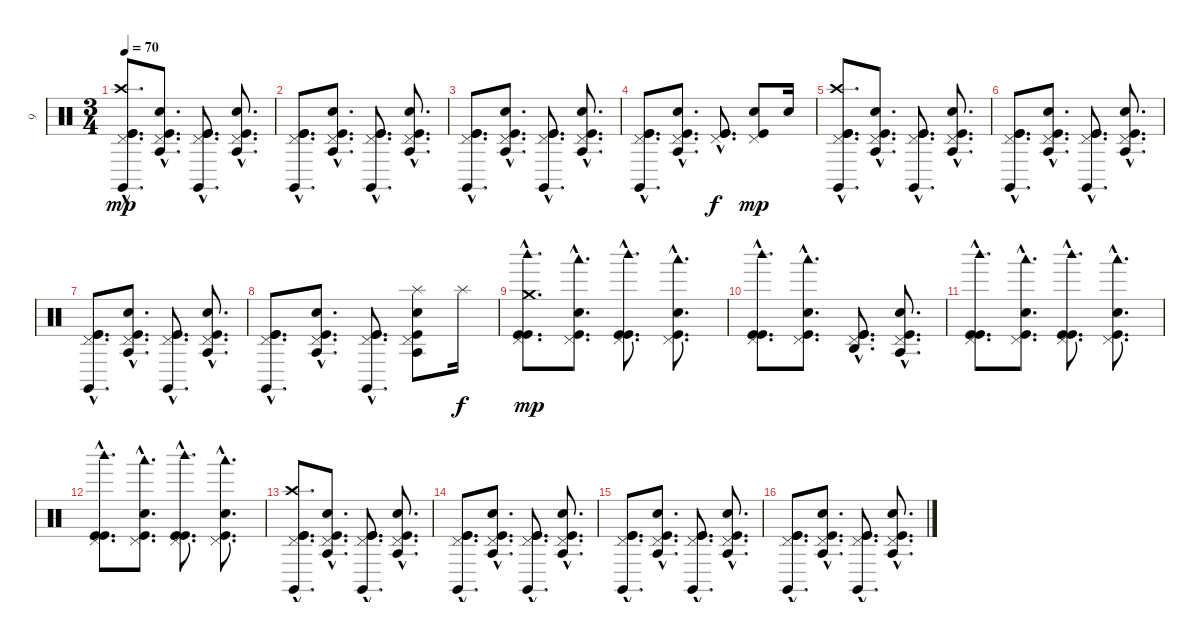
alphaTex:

\track ("9" "9") {instrument percussion}
\staff {score}
\articulation defaults
\ts (3 4)
\tempo 70
\clef neutral
\ks c
("Kick (hit)"{hac} "Kick (hit)"{hac} "Claves (hit)"{hac} "Pedal Hi-Hat (hit)"{hac} "Crash high (hit)"{hac}).8{d dy mp} ("Kick (hit)"{hac} "Snare (hit) 2"{hac} "Agogo tow (hit)"{hac} "Pedal Hi-Hat (hit)"{hac}).8{d} ("Kick (hit)"{hac} "Kick (hit)"{hac} "Claves (hit)"{hac} "Pedal Hi-Hat (hit)"{hac}).8{d} ("Kick (hit)"{hac} "Snare (hit) 2"{hac} "Agogo tow (hit)"{hac} "Pedal Hi-Hat (hit)"{hac}).8{d} |
("Kick (hit)"{hac} "Kick (hit)"{hac} "Claves (hit)"{hac} "Pedal Hi-Hat (hit)"{hac}).8{d} ("Kick (hit)"{hac} "Snare (hit) 2"{hac} "Agogo tow (hit)"{hac} "Pedal Hi-Hat (hit)"{hac}).8{d} ("Kick (hit)"{hac} "Kick (hit)"{hac} "Claves (hit)"{hac} "Pedal Hi-Hat (hit)"{hac}).8{d} ("Kick (hit)"{hac} "Snare (hit) 2"{hac} "Agogo tow (hit)"{hac} "Pedal Hi-Hat (hit)"{hac}).8{d} |
("Kick (hit)"{hac} "Kick (hit)"{hac} "Claves (hit)"{hac} "Pedal Hi-Hat (hit)"{hac}).8{d} ("Kick (hit)"{hac} "Snare (hit) 2"{hac} "Agogo tow (hit)"{hac} "Pedal Hi-Hat (hit)"{hac}).8{d} ("Kick (hit)"{hac} "Kick (hit)"{hac} "Claves (hit)"{hac} "Pedal Hi-Hat (hit)"{hac}).8{d} ("Kick (hit)"{hac} "Snare (hit) 2"{hac} "Agogo tow (hit)"{hac} "Pedal Hi-Hat (hit)"{hac}).8{d} |
("Kick (hit)"{hac} "Kick (hit)"{hac} "Claves (hit)"{hac} "Pedal Hi-Hat (hit)"{hac}).8{d} ("Kick (hit)"{hac} "Snare (hit) 2"{hac} "Agogo tow (hit)"{hac} "Pedal Hi-Hat (hit)"{hac}).8{d} ("Kick (hit)"{hac} "Kick (hit)"{hac} "Pedal Hi-Hat (hit)"{hac}).8{d dy f} ("Kick (hit)" "Snare (hit) 2" "Pedal Hi-Hat (hit)").8{dy mp} "Snare (hit) 2".16 |
("Kick (hit)"{hac} "Kick (hit)"{hac} "Claves (hit)"{hac} "Pedal Hi-Hat (hit)"{hac} "Crash high (hit)"{hac}).8{d} ("Kick (hit)"{hac} "Snare (hit) 2"{hac} "Agogo tow (hit)"{hac} "Pedal Hi-Hat (hit)"{hac}).8{d} ("Kick (hit)"{hac} "Kick (hit)"{hac} "Claves (hit)"{hac} "Pedal Hi-Hat (hit)"{hac}).8{d} ("Kick (hit)"{hac} "Snare (hit) 2"{hac} "Agogo tow (hit)"{hac} "Pedal Hi-Hat (hit)"{hac}).8{d} |
("Kick (hit)"{hac} "Kick (hit)"{hac} "Claves (hit)"{hac} "Pedal Hi-Hat (hit)"{hac}).8{d} ("Kick (hit)"{hac} "Snare (hit) 2"{hac} "Agogo tow (hit)"{hac} "Pedal Hi-Hat (hit)"{hac}).8{d} ("Kick (hit)"{hac} "Kick (hit)"{hac} "Claves (hit)"{hac} "Pedal Hi-Hat (hit)"{hac}).8{d} ("Kick (hit)"{hac} "Snare (hit) 2"{hac} "Agogo tow (hit)"{hac} "Pedal Hi-Hat (hit)"{hac}).8{d} |
("Kick (hit)"{hac} "Kick (hit)"{hac} "Claves (hit)"{hac} "Pedal Hi-Hat (hit)"{hac}).8{d} ("Kick (hit)"{hac} "Snare (hit) 2"{hac} "Agogo tow (hit)"{hac} "Pedal Hi-Hat (hit)"{hac}).8{d} ("Kick (hit)"{hac} "Kick (hit)"{hac} "Claves (hit)"{hac} "Pedal Hi-Hat (hit)"{hac}).8{d} ("Kick (hit)"{hac} "Snare (hit) 2"{hac} "Agogo tow (hit)"{hac} "Pedal Hi-Hat (hit)"{hac}).8{d} |
("Kick (hit)"{hac} "Kick (hit)"{hac} "Claves (hit)"{hac} "Pedal Hi-Hat (hit)"{hac}).8{d} ("Kick (hit)"{hac} "Snare (hit) 2"{hac} "Agogo tow (hit)"{hac} "Pedal Hi-Hat (hit)"{hac}).8{d} ("Kick (hit)"{hac} "Kick (hit)"{hac} "Claves (hit)"{hac} "Pedal Hi-Hat (hit)"{hac}).8{d} ("Kick (hit)" "Snare (hit) 2" "Agogo tow (hit)" "Pedal Hi-Hat (hit)" "Splash (hit)").8 "Splash (hit)".16{dy f} |
("Kick (hit)"{hac} "Kick (hit)"{hac} "Woodblock high (hit)"{hac} "Pedal Hi-Hat (hit)"{hac} "Crash medium (hit)"{hac}).8{d dy mp} ("Kick (hit)"{hac} "Snare (hit) 2"{hac} "Woodblock low (hit)"{hac} "Pedal Hi-Hat (hit)"{hac}).8{d} ("Kick (hit)"{hac} "Kick (hit)"{hac} "Woodblock high (hit)"{hac} "Pedal Hi-Hat (hit)"{hac}).8{d} ("Kick (hit)"{hac} "Snare (hit) 2"{hac} "Woodblock low (hit)"{hac} "Pedal Hi-Hat (hit)"{hac}).8{d} |
("Kick (hit)"{hac} "Kick (hit)"{hac} "Woodblock high (hit)"{hac} "Pedal Hi-Hat (hit)"{hac}).8{d} ("Kick (hit)"{hac} "Snare (hit) 2"{hac} "Woodblock low (hit)"{hac} "Pedal Hi-Hat (hit)"{hac}).8{d} ("Kick (hit)"{hac} "Kick (hit)"{hac} "Agogo high (hit)"{hac} "Pedal Hi-Hat (hit)"{hac}).8{d} ("Kick (hit)"{hac} "Snare (hit) 2"{hac} "Agogo tow (hit)"{hac} "Pedal Hi-Hat (hit)"{hac}).8{d} |
("Kick (hit)"{hac} "Kick (hit)"{hac} "Woodblock high (hit)"{hac} "Pedal Hi-Hat (hit)"{hac}).8{d} ("Kick (hit)"{hac} "Snare (hit) 2"{hac} "Woodblock low (hit)"{hac} "Pedal Hi-Hat (hit)"{hac}).8{d} ("Kick (hit)"{hac} "Kick (hit)"{hac} "Woodblock high (hit)"{hac} "Pedal Hi-Hat (hit)"{hac}).8{d} ("Kick (hit)"{hac} "Snare (hit) 2"{hac} "Woodblock low (hit)"{hac} "Pedal Hi-Hat (hit)"{hac}).8{d} |
("Kick (hit)"{hac} "Kick (hit)"{hac} "Woodblock high (hit)"{hac} "Pedal Hi-Hat (hit)"{hac}).8{d} ("Kick (hit)"{hac} "Snare (hit) 2"{hac} "Woodblock low (hit)"{hac} "Pedal Hi-Hat (hit)"{hac}).8{d} ("Kick (hit)"{hac} "Kick (hit)"{hac} "Woodblock high (hit)"{hac} "Pedal Hi-Hat (hit)"{hac}).8{d} ("Kick (hit)"{hac} "Snare (hit) 2"{hac} "Woodblock low (hit)"{hac} "Pedal Hi-Hat (hit)"{hac}).8{d} |
("Kick (hit)"{hac} "Kick (hit)"{hac} "Claves (hit)"{hac} "Pedal Hi-Hat (hit)"{hac} "Crash high (hit)"{hac}).8{d} ("Kick (hit)"{hac} "Snare (hit) 2"{hac} "Agogo tow (hit)"{hac} "Pedal Hi-Hat (hit)"{hac}).8{d} ("Kick (hit)"{hac} "Kick (hit)"{hac} "Claves (hit)"{hac} "Pedal Hi-Hat (hit)"{hac}).8{d} ("Kick (hit)"{hac} "Snare (hit) 2"{hac} "Agogo tow (hit)"{hac} "Pedal Hi-Hat (hit)"{hac}).8{d} |
("Kick (hit)"{hac} "Kick (hit)"{hac} "Claves (hit)"{hac} "Pedal Hi-Hat (hit)"{hac}).8{d} ("Kick (hit)"{hac} "Snare (hit) 2"{hac} "Agogo tow (hit)"{hac} "Pedal Hi-Hat (hit)"{hac}).8{d} ("Kick (hit)"{hac} "Kick (hit)"{hac} "Claves (hit)"{hac} "Pedal Hi-Hat (hit)"{hac}).8{d} ("Kick (hit)"{hac} "Snare (hit) 2"{hac} "Agogo tow (hit)"{hac} "Pedal Hi-Hat (hit)"{hac}).8{d} |
("Kick (hit)"{hac} "Kick (hit)"{hac} "Claves (hit)"{hac} "Pedal Hi-Hat (hit)"{hac}).8{d} ("Kick (hit)"{hac} "Snare (hit) 2"{hac} "Agogo tow (hit)"{hac} "Pedal Hi-Hat (hit)"{hac}).8{d} ("Kick (hit)"{hac} "Kick (hit)"{hac} "Claves (hit)"{hac} "Pedal Hi-Hat (hit)"{hac}).8{d} ("Kick (hit)"{hac} "Snare (hit) 2"{hac} "Agogo tow (hit)"{hac} "Pedal Hi-Hat (hit)"{hac}).8{d} |
("Kick (hit)"{hac} "Kick (hit)"{hac} "Claves (hit)"{hac} "Pedal Hi-Hat (hit)"{hac}).8{d} ("Kick (hit)"{hac} "Snare (hit) 2"{hac} "Agogo tow (hit)"{hac} "Pedal Hi-Hat (hit)"{hac}).8{d} ("Kick (hit)"{hac} "Kick (hit)"{hac} "Claves (hit)"{hac} "Pedal Hi-Hat (hit)"{hac}).8{d} ("Kick (hit)"{hac} "Snare (hit) 2"{hac} "Agogo tow (hit)"{hac} "Pedal Hi-Hat (hit)"{hac}).8{d}
